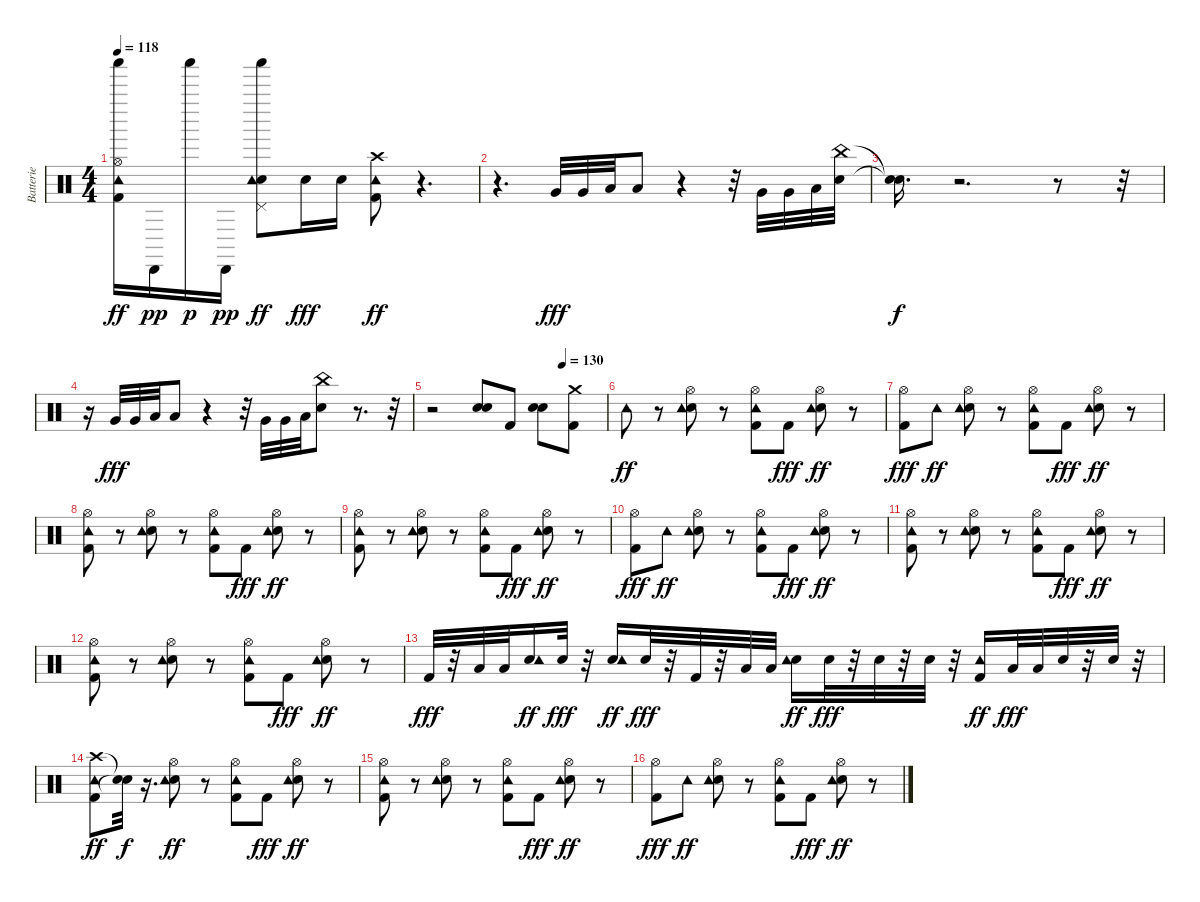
\track ("Batterie" "Batterie") {instrument percussion}
\staff {score}
\articulation defaults
\ts (4 4)
\tempo 118
\clef neutral
\ks c
("Hi-Hat (open)" "Shaker (hit)" "Kick (hit) 2" "Tambourine (hit)").16{dy ff} "Cabasa (hit)".16{dy pp} "Shaker (hit)".16{dy p} "Cabasa (hit)".16{dy pp} ("Pedal Hi-Hat (hit)" "Shaker (hit)" "Snare (hit) 2" "Tambourine (hit)").8{dy ff} "Snare (hit) 2".16{dy fff} "Snare (hit) 2".16 ("Crash high (hit)" "Kick (hit) 2" "Tambourine (hit)").8{dy ff} r.4{d} |
r.4{d} "Very Low Tom (hit)".32{dy fff} "Very Low Tom (hit)".32 "Low Floor Tom (hit)".32 "Low Floor Tom (hit)".8 r.4 r.32 "Very Low Tom (hit)".32 "Very Low Tom (hit)".32 "Low Floor Tom (hit)".32 ("China (hit)" "Snare (hit) 2").32 |
("Snare (hit)"{t} "Snare (hit)"{t}).16{d dy f} r.2{d} r.8 r.32 |
r.16 "Very Low Tom (hit)".32{dy fff} "Very Low Tom (hit)".32 "Low Floor Tom (hit)".32 "Low Floor Tom (hit)".8 r.4 r.32 "Very Low Tom (hit)".32 "Very Low Tom (hit)".32 "Low Floor Tom (hit)".32 ("China (hit)" "Snare (hit) 2").8 r.8{d} r.32 |
\tempo (130 0.75)
r.2 ("Snare (hit) 2" "Snare (hit) 2").8 "Kick (hit) 2".8 ("Snare (hit) 2" "Snare (hit) 2").8 ("Crash medium (hit)" "Kick (hit) 2").8 |
"Tambourine (hit)".8{dy ff} r.8 ("Hi-Hat (open)" "Snare (hit) 2" "Tambourine (hit)").8 r.8 ("Hi-Hat (open)" "Kick (hit) 2" "Tambourine (hit)").8 "Kick (hit) 2".8{dy fff} ("Hi-Hat (open)" "Snare (hit) 2" "Tambourine (hit)").8{dy ff} r.8 |
("Hi-Hat (open)" "Kick (hit) 2").8{dy fff} "Tambourine (hit)".8{dy ff} ("Hi-Hat (open)" "Snare (hit) 2" "Tambourine (hit)").8 r.8 ("Hi-Hat (open)" "Kick (hit) 2" "Tambourine (hit)").8 "Kick (hit) 2".8{dy fff} ("Hi-Hat (open)" "Snare (hit) 2" "Tambourine (hit)").8{dy ff} r.8 |
("Hi-Hat (open)" "Kick (hit) 2" "Tambourine (hit)").8 r.8 ("Hi-Hat (open)" "Snare (hit) 2" "Tambourine (hit)").8 r.8 ("Hi-Hat (open)" "Kick (hit) 2" "Tambourine (hit)").8 "Kick (hit) 2".8{dy fff} ("Hi-Hat (open)" "Snare (hit) 2" "Tambourine (hit)").8{dy ff} r.8 |
("Hi-Hat (open)" "Kick (hit) 2" "Tambourine (hit)").8 r.8 ("Hi-Hat (open)" "Snare (hit) 2" "Tambourine (hit)").8 r.8 ("Hi-Hat (open)" "Kick (hit) 2" "Tambourine (hit)").8 "Kick (hit) 2".8{dy fff} ("Hi-Hat (open)" "Snare (hit) 2" "Tambourine (hit)").8{dy ff} r.8 |
("Hi-Hat (open)" "Kick (hit) 2").8{dy fff} "Tambourine (hit)".8{dy ff} ("Hi-Hat (open)" "Snare (hit) 2" "Tambourine (hit)").8 r.8 ("Hi-Hat (open)" "Kick (hit) 2" "Tambourine (hit)").8 "Kick (hit) 2".8{dy fff} ("Hi-Hat (open)" "Snare (hit) 2" "Tambourine (hit)").8{dy ff} r.8 |
("Hi-Hat (open)" "Kick (hit) 2" "Tambourine (hit)").8 r.8 ("Hi-Hat (open)" "Snare (hit) 2" "Tambourine (hit)").8 r.8 ("Hi-Hat (open)" "Kick (hit) 2" "Tambourine (hit)").8 "Kick (hit) 2".8{dy fff} ("Hi-Hat (open)" "Snare (hit) 2" "Tambourine (hit)").8{dy ff} r.8 |
("Hi-Hat (open)" "Kick (hit) 2" "Tambourine (hit)").8 r.8 ("Hi-Hat (open)" "Snare (hit) 2" "Tambourine (hit)").8 r.8 ("Hi-Hat (open)" "Kick (hit) 2" "Tambourine (hit)").8 "Kick (hit) 2".8{dy fff} ("Hi-Hat (open)" "Snare (hit) 2" "Tambourine (hit)").8{dy ff} r.8 |
"Kick (hit) 2".32{dy fff} r.32 "Low Floor Tom (hit)".32 "Low Tom (hit)".32 ("Snare (hit) 2" "Tambourine (hit)").16{dy ff} "Snare (hit) 2".32{dy fff} r.32 ("Snare (hit) 2" "Tambourine (hit)").16{dy ff} "Snare (hit) 2".32{dy fff} r.32 "Kick (hit) 2".32 r.32 "Low Floor Tom (hit)".32 "Low Tom (hit)".32 ("Snare (hit) 2" "Tambourine (hit)").16{dy ff} "Snare (hit) 2".32{dy fff} r.32 "Snare (hit) 2".32 r.32 "Snare (hit) 2".32 r.32 ("Kick (hit) 2" "Tambourine (hit)").16{dy ff} "Low Floor Tom (hit)".32{dy fff} "Low Tom (hit)".32 "Snare (hit) 2".32 r.32 "Snare (hit) 2".32 r.32 |
("Crash high (hit)" "Kick (hit) 2" "Tambourine (hit)").8{dy ff} ("Snare (hit)"{t} "Snare (hit)"{t}).32{dy f} r.16{d} ("Hi-Hat (open)" "Snare (hit) 2" "Tambourine (hit)").8{dy ff} r.8 ("Hi-Hat (open)" "Kick (hit) 2" "Tambourine (hit)").8 "Kick (hit) 2".8{dy fff} ("Hi-Hat (open)" "Snare (hit) 2" "Tambourine (hit)").8{dy ff} r.8 |
("Hi-Hat (open)" "Kick (hit) 2" "Tambourine (hit)").8 r.8 ("Hi-Hat (open)" "Snare (hit) 2" "Tambourine (hit)").8 r.8 ("Hi-Hat (open)" "Kick (hit) 2" "Tambourine (hit)").8 "Kick (hit) 2".8{dy fff} ("Hi-Hat (open)" "Snare (hit) 2" "Tambourine (hit)").8{dy ff} r.8 |
("Hi-Hat (open)" "Kick (hit) 2").8{dy fff} "Tambourine (hit)".8{dy ff} ("Hi-Hat (open)" "Snare (hit) 2" "Tambourine (hit)").8 r.8 ("Hi-Hat (open)" "Kick (hit) 2" "Tambourine (hit)").8 "Kick (hit) 2".8{dy fff} ("Hi-Hat (open)" "Snare (hit) 2" "Tambourine (hit)").8{dy ff} r.8
